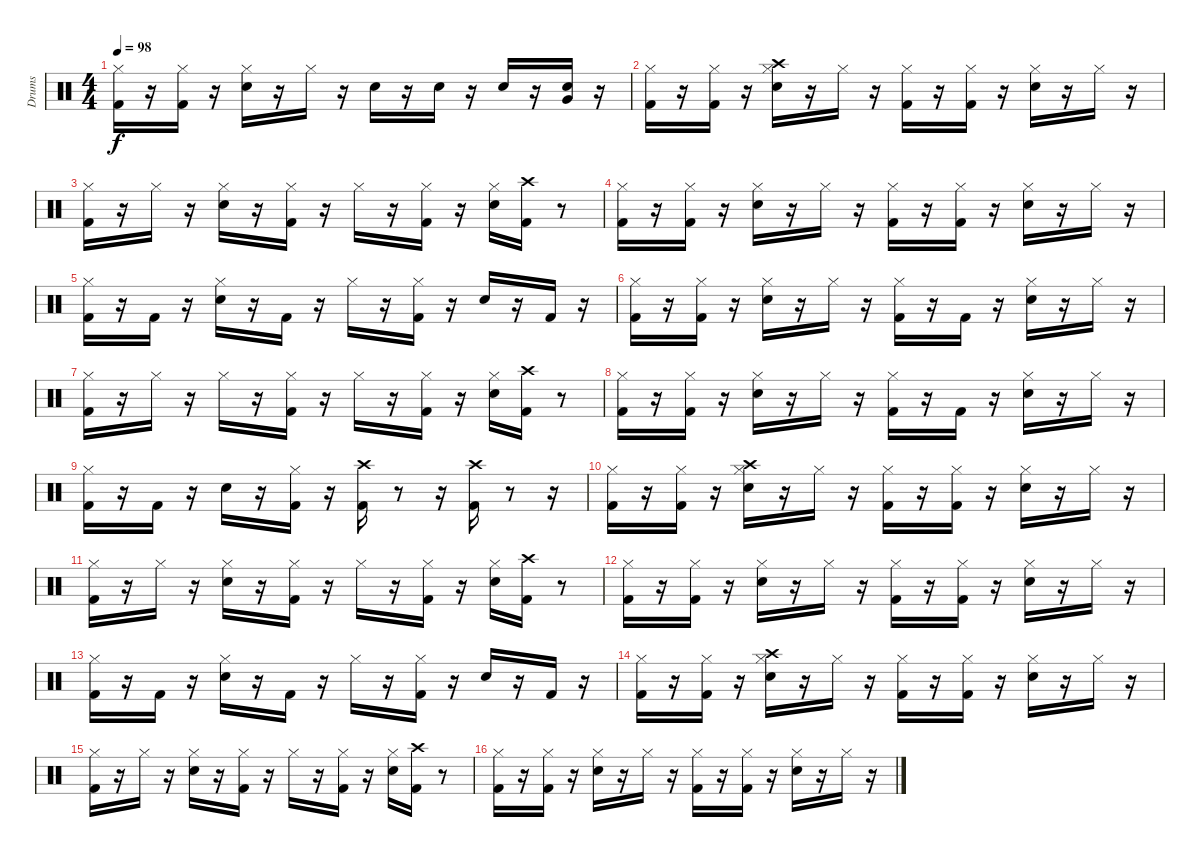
\track ("Drums" "Drums") {instrument percussion}
\staff {score}
\articulation defaults
\ts (4 4)
\tempo 98
\clef neutral
\ks c
("Kick (hit) 2" "Hi-Hat (closed)").16{dy f} r.16 ("Kick (hit) 2" "Hi-Hat (closed)").16 r.16 ("Snare (hit) 2" "Hi-Hat (closed)").16 r.16 "Hi-Hat (closed)".16 r.16 "Snare (hit) 2".16 r.16 "Snare (hit) 2".16 r.16 "Snare (hit) 2".16 r.16 ("Snare (hit) 2" "Very Low Tom (hit)").16 r.16 |
("Kick (hit) 2" "Hi-Hat (closed)").16 r.16 ("Kick (hit) 2" "Hi-Hat (closed)").16 r.16 ("Snare (hit) 2" "Hi-Hat (closed)" "Crash high (hit)").16 r.16 "Hi-Hat (closed)".16 r.16 ("Kick (hit) 2" "Hi-Hat (closed)").16 r.16 ("Kick (hit) 2" "Hi-Hat (closed)").16 r.16 ("Snare (hit) 2" "Hi-Hat (closed)").16 r.16 "Hi-Hat (closed)".16 r.16 |
("Kick (hit) 2" "Hi-Hat (closed)").16 r.16 "Hi-Hat (closed)".16 r.16 ("Snare (hit) 2" "Hi-Hat (closed)").16 r.16 ("Kick (hit) 2" "Hi-Hat (closed)").16 r.16 "Hi-Hat (closed)".16 r.16 ("Kick (hit) 2" "Hi-Hat (closed)").16 r.16 ("Snare (hit) 2" "Hi-Hat (closed)").16 ("Kick (hit) 2" "Crash high (hit)").16 r.8 |
("Kick (hit) 2" "Hi-Hat (closed)").16 r.16 ("Kick (hit) 2" "Hi-Hat (closed)").16 r.16 ("Snare (hit) 2" "Hi-Hat (closed)").16 r.16 "Hi-Hat (closed)".16 r.16 ("Kick (hit) 2" "Hi-Hat (closed)").16 r.16 ("Kick (hit) 2" "Hi-Hat (closed)").16 r.16 ("Snare (hit) 2" "Hi-Hat (closed)").16 r.16 "Hi-Hat (closed)".16 r.16 |
("Kick (hit) 2" "Hi-Hat (closed)").16 r.16 "Kick (hit) 2".16 r.16 ("Snare (hit) 2" "Hi-Hat (closed)").16 r.16 "Kick (hit) 2".16 r.16 "Hi-Hat (closed)".16 r.16 ("Kick (hit) 2" "Hi-Hat (closed)").16 r.16 "Snare (hit) 2".16 r.16 "Kick (hit) 2".16 r.16 |
("Kick (hit) 2" "Hi-Hat (closed)").16 r.16 ("Kick (hit) 2" "Hi-Hat (closed)").16 r.16 ("Snare (hit) 2" "Hi-Hat (closed)").16 r.16 "Hi-Hat (closed)".16 r.16 ("Kick (hit) 2" "Hi-Hat (closed)").16 r.16 "Kick (hit) 2".16 r.16 ("Snare (hit) 2" "Hi-Hat (closed)").16 r.16 "Hi-Hat (closed)".16 r.16 |
("Kick (hit) 2" "Hi-Hat (closed)").16 r.16 "Hi-Hat (closed)".16 r.16 "Hi-Hat (closed)".16 r.16 ("Kick (hit) 2" "Hi-Hat (closed)").16 r.16 "Hi-Hat (closed)".16 r.16 ("Kick (hit) 2" "Hi-Hat (closed)").16 r.16 ("Snare (hit) 2" "Hi-Hat (closed)").16 ("Kick (hit) 2" "Crash high (hit)").16 r.8 |
("Kick (hit) 2" "Hi-Hat (closed)").16 r.16 ("Kick (hit) 2" "Hi-Hat (closed)").16 r.16 ("Snare (hit) 2" "Hi-Hat (closed)").16 r.16 "Hi-Hat (closed)".16 r.16 ("Kick (hit) 2" "Hi-Hat (closed)").16 r.16 "Kick (hit) 2".16 r.16 ("Snare (hit) 2" "Hi-Hat (closed)").16 r.16 "Hi-Hat (closed)".16 r.16 |
("Kick (hit) 2" "Hi-Hat (closed)").16 r.16 "Kick (hit) 2".16 r.16 "Snare (hit) 2".16 r.16 ("Kick (hit) 2" "Hi-Hat (closed)").16 r.16 ("Kick (hit) 2" "Crash high (hit)").16 r.8 r.16 ("Kick (hit) 2" "Crash high (hit)").16 r.8 r.16 |
("Kick (hit) 2" "Hi-Hat (closed)").16 r.16 ("Kick (hit) 2" "Hi-Hat (closed)").16 r.16 ("Snare (hit) 2" "Hi-Hat (closed)" "Crash high (hit)").16 r.16 "Hi-Hat (closed)".16 r.16 ("Kick (hit) 2" "Hi-Hat (closed)").16 r.16 ("Kick (hit) 2" "Hi-Hat (closed)").16 r.16 ("Snare (hit) 2" "Hi-Hat (closed)").16 r.16 "Hi-Hat (closed)".16 r.16 |
("Kick (hit) 2" "Hi-Hat (closed)").16 r.16 "Hi-Hat (closed)".16 r.16 ("Snare (hit) 2" "Hi-Hat (closed)").16 r.16 ("Kick (hit) 2" "Hi-Hat (closed)").16 r.16 "Hi-Hat (closed)".16 r.16 ("Kick (hit) 2" "Hi-Hat (closed)").16 r.16 ("Snare (hit) 2" "Hi-Hat (closed)").16 ("Kick (hit) 2" "Crash high (hit)").16 r.8 |
("Kick (hit) 2" "Hi-Hat (closed)").16 r.16 ("Kick (hit) 2" "Hi-Hat (closed)").16 r.16 ("Snare (hit) 2" "Hi-Hat (closed)").16 r.16 "Hi-Hat (closed)".16 r.16 ("Kick (hit) 2" "Hi-Hat (closed)").16 r.16 ("Kick (hit) 2" "Hi-Hat (closed)").16 r.16 ("Snare (hit) 2" "Hi-Hat (closed)").16 r.16 "Hi-Hat (closed)".16 r.16 |
("Kick (hit) 2" "Hi-Hat (closed)").16 r.16 "Kick (hit) 2".16 r.16 ("Snare (hit) 2" "Hi-Hat (closed)").16 r.16 "Kick (hit) 2".16 r.16 "Hi-Hat (closed)".16 r.16 ("Kick (hit) 2" "Hi-Hat (closed)").16 r.16 "Snare (hit) 2".16 r.16 "Kick (hit) 2".16 r.16 |
("Kick (hit) 2" "Hi-Hat (closed)").16 r.16 ("Kick (hit) 2" "Hi-Hat (closed)").16 r.16 ("Snare (hit) 2" "Hi-Hat (closed)" "Crash high (hit)").16 r.16 "Hi-Hat (closed)".16 r.16 ("Kick (hit) 2" "Hi-Hat (closed)").16 r.16 ("Kick (hit) 2" "Hi-Hat (closed)").16 r.16 ("Snare (hit) 2" "Hi-Hat (closed)").16 r.16 "Hi-Hat (closed)".16 r.16 |
("Kick (hit) 2" "Hi-Hat (closed)").16 r.16 "Hi-Hat (closed)".16 r.16 ("Snare (hit) 2" "Hi-Hat (closed)").16 r.16 ("Kick (hit) 2" "Hi-Hat (closed)").16 r.16 "Hi-Hat (closed)".16 r.16 ("Kick (hit) 2" "Hi-Hat (closed)").16 r.16 ("Snare (hit) 2" "Hi-Hat (closed)").16 ("Kick (hit) 2" "Crash high (hit)").16 r.8 |
("Kick (hit) 2" "Hi-Hat (closed)").16 r.16 ("Kick (hit) 2" "Hi-Hat (closed)").16 r.16 ("Snare (hit) 2" "Hi-Hat (closed)").16 r.16 "Hi-Hat (closed)".16 r.16 ("Kick (hit) 2" "Hi-Hat (closed)").16 r.16 ("Kick (hit) 2" "Hi-Hat (closed)").16 r.16 ("Snare (hit) 2" "Hi-Hat (closed)").16 r.16 "Hi-Hat (closed)".16 r.16
